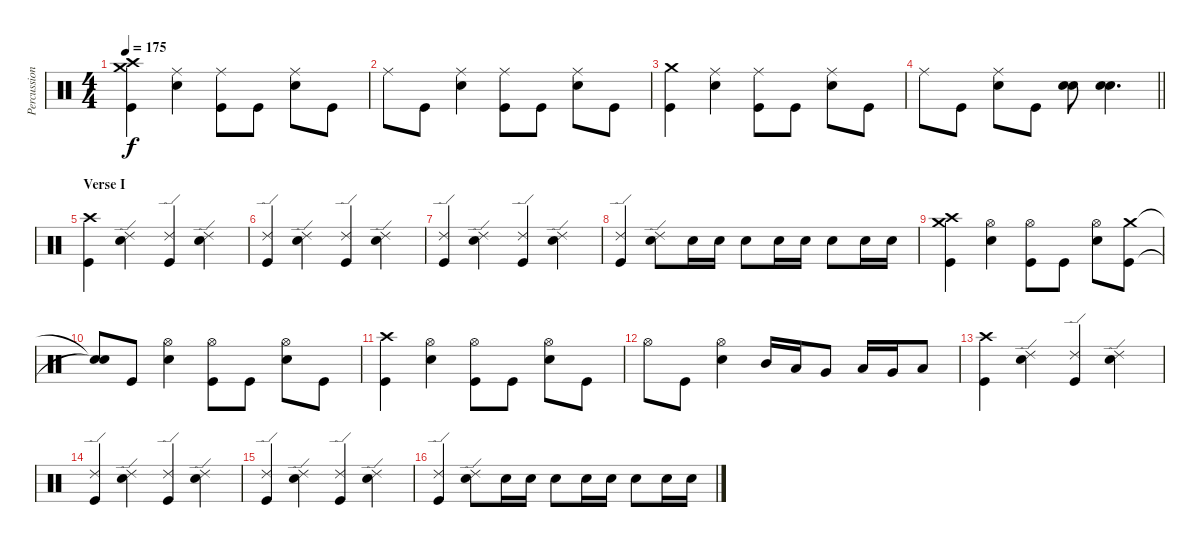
\track ("Percussion" "Percussion") {instrument percussion}
\staff {score}
\articulation defaults
\ts (4 4)
\tempo 175
\clef neutral
\ks c
("Crash medium (hit)" "Crash high (hit)" "Kick (hit)").4{dy f} ("Ride (middle)" "Electric Snare (hit)").4 ("Ride (middle)" "Kick (hit)").8 "Kick (hit)".8 ("Ride (middle)" "Electric Snare (hit)").8 "Kick (hit)".8 |
"Ride (middle)".8 "Kick (hit)".8 ("Ride (middle)" "Electric Snare (hit)").4 ("Ride (middle)" "Kick (hit)").8 "Kick (hit)".8 ("Ride (middle)" "Electric Snare (hit)").8 "Kick (hit)".8 |
("Crash medium (hit)" "Kick (hit)").4 ("Ride (middle)" "Electric Snare (hit)").4 ("Ride (middle)" "Kick (hit)").8 "Kick (hit)".8 ("Ride (middle)" "Electric Snare (hit)").8 "Kick (hit)".8 |
\barLineRight lightlight "Ride (middle)".8 "Kick (hit)".8
("Ride (middle)" "Electric Snare (hit)").8 "Kick (hit)".8 ("Electric Snare (hit)" "Electric Snare (hit)").8 ("Electric Snare (hit)" "Electric Snare (hit)").4{d} |
\section ("" "Verse I")
("Crash high (hit)" "Kick (hit)").4 ("Ride (edge) 2" "Electric Snare (hit)").4 ("Ride (edge) 2" "Kick (hit)").4 ("Ride (edge) 2" "Electric Snare (hit)").4 |
("Ride (edge) 2" "Kick (hit)").4 ("Ride (edge) 2" "Electric Snare (hit)").4 ("Ride (edge) 2" "Kick (hit)").4 ("Ride (edge) 2" "Electric Snare (hit)").4 |
("Ride (edge) 2" "Kick (hit)").4 ("Ride (edge) 2" "Electric Snare (hit)").4 ("Ride (edge) 2" "Kick (hit)").4 ("Ride (edge) 2" "Electric Snare (hit)").4 |
("Ride (edge) 2" "Kick (hit)").4 ("Ride (edge) 2" "Electric Snare (hit)").8 "Electric Snare (hit)".16 "Electric Snare (hit)".16 "Electric Snare (hit)".8 "Electric Snare (hit)".16 "Electric Snare (hit)".16 "Electric Snare (hit)".8 "Electric Snare (hit)".16 "Electric Snare (hit)".16 |
("Crash high (hit)" "Crash medium (hit)" "Kick (hit)").4 ("Hi-Hat (open)" "Electric Snare (hit)").4 ("Hi-Hat (open)" "Kick (hit)").8 "Kick (hit)".8 ("Hi-Hat (open)" "Electric Snare (hit)").8 ("Crash medium (hit)" "Kick (hit)").8 |
("Snare (hit)"{t} "Snare (hit)"{t}).8 "Kick (hit)".8 ("Hi-Hat (open)" "Electric Snare (hit)").4 ("Hi-Hat (open)" "Kick (hit)").8 "Kick (hit)".8 ("Hi-Hat (open)" "Electric Snare (hit)").8 "Kick (hit)".8 |
("Crash high (hit)" "Kick (hit)").4 ("Hi-Hat (open)" "Electric Snare (hit)").4 ("Hi-Hat (open)" "Kick (hit)").8 "Kick (hit)".8 ("Hi-Hat (open)" "Electric Snare (hit)").8 "Kick (hit)".8 |
"Hi-Hat (open)".8 "Kick (hit)".8 ("Hi-Hat (open)" "Electric Snare (hit)").4 "Mid Tom (hit)".16 "Low Tom (hit)".16 "Very Low Tom (hit)".8 "Low Tom (hit)".16 "Very Low Tom (hit)".16 "Low Floor Tom (hit)".8 |
("Crash high (hit)" "Kick (hit)").4 ("Ride (edge) 2" "Electric Snare (hit)").4 ("Ride (edge) 2" "Kick (hit)").4 ("Ride (edge) 2" "Electric Snare (hit)").4 |
("Ride (edge) 2" "Kick (hit)").4 ("Ride (edge) 2" "Electric Snare (hit)").4 ("Ride (edge) 2" "Kick (hit)").4 ("Ride (edge) 2" "Electric Snare (hit)").4 |
("Ride (edge) 2" "Kick (hit)").4 ("Ride (edge) 2" "Electric Snare (hit)").4 ("Ride (edge) 2" "Kick (hit)").4 ("Ride (edge) 2" "Electric Snare (hit)").4 |
("Ride (edge) 2" "Kick (hit)").4 ("Ride (edge) 2" "Electric Snare (hit)").8 "Electric Snare (hit)".16 "Electric Snare (hit)".16 "Electric Snare (hit)".8 "Electric Snare (hit)".16 "Electric Snare (hit)".16 "Electric Snare (hit)".8 "Electric Snare (hit)".16 "Electric Snare (hit)".16
